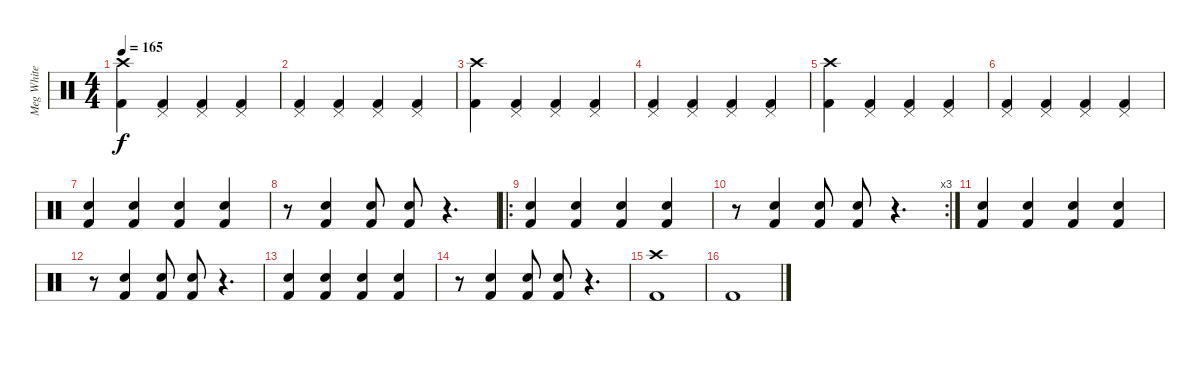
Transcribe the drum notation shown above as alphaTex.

\track ("Meg White" "Meg White") {instrument percussion}
\staff {score}
\articulation defaults
\ts (4 4)
\tempo 165
\clef neutral
\ks c
("Crash high (hit)" "Kick (hit) 2").4{dy f} ("Pedal Hi-Hat (hit)" "Kick (hit) 2").4 ("Pedal Hi-Hat (hit)" "Kick (hit) 2").4 ("Pedal Hi-Hat (hit)" "Kick (hit) 2").4 |
("Pedal Hi-Hat (hit)" "Kick (hit) 2").4 ("Pedal Hi-Hat (hit)" "Kick (hit) 2").4 ("Pedal Hi-Hat (hit)" "Kick (hit) 2").4 ("Pedal Hi-Hat (hit)" "Kick (hit) 2").4 |
("Crash high (hit)" "Kick (hit) 2").4 ("Pedal Hi-Hat (hit)" "Kick (hit) 2").4 ("Pedal Hi-Hat (hit)" "Kick (hit) 2").4 ("Pedal Hi-Hat (hit)" "Kick (hit) 2").4 |
("Pedal Hi-Hat (hit)" "Kick (hit) 2").4 ("Pedal Hi-Hat (hit)" "Kick (hit) 2").4 ("Pedal Hi-Hat (hit)" "Kick (hit) 2").4 ("Pedal Hi-Hat (hit)" "Kick (hit) 2").4 |
("Crash high (hit)" "Kick (hit) 2").4 ("Pedal Hi-Hat (hit)" "Kick (hit) 2").4 ("Pedal Hi-Hat (hit)" "Kick (hit) 2").4 ("Pedal Hi-Hat (hit)" "Kick (hit) 2").4 |
("Pedal Hi-Hat (hit)" "Kick (hit) 2").4 ("Pedal Hi-Hat (hit)" "Kick (hit) 2").4 ("Pedal Hi-Hat (hit)" "Kick (hit) 2").4 ("Pedal Hi-Hat (hit)" "Kick (hit) 2").4 |
("Electric Snare (hit)" "Kick (hit) 2").4 ("Electric Snare (hit)" "Kick (hit) 2").4 ("Electric Snare (hit)" "Kick (hit) 2").4 ("Electric Snare (hit)" "Kick (hit) 2").4 |
r.8 ("Electric Snare (hit)" "Kick (hit) 2").4 ("Electric Snare (hit)" "Kick (hit) 2").8 ("Electric Snare (hit)" "Kick (hit) 2").8 r.4{d} |
\ro
("Electric Snare (hit)" "Kick (hit) 2").4 ("Electric Snare (hit)" "Kick (hit) 2").4 ("Electric Snare (hit)" "Kick (hit) 2").4 ("Electric Snare (hit)" "Kick (hit) 2").4 |
\rc 3
r.8 ("Electric Snare (hit)" "Kick (hit) 2").4 ("Electric Snare (hit)" "Kick (hit) 2").8 ("Electric Snare (hit)" "Kick (hit) 2").8 r.4{d} |
("Electric Snare (hit)" "Kick (hit) 2").4 ("Electric Snare (hit)" "Kick (hit) 2").4 ("Electric Snare (hit)" "Kick (hit) 2").4 ("Electric Snare (hit)" "Kick (hit) 2").4 |
r.8 ("Electric Snare (hit)" "Kick (hit) 2").4 ("Electric Snare (hit)" "Kick (hit) 2").8 ("Electric Snare (hit)" "Kick (hit) 2").8 r.4{d} |
("Electric Snare (hit)" "Kick (hit) 2").4 ("Electric Snare (hit)" "Kick (hit) 2").4 ("Electric Snare (hit)" "Kick (hit) 2").4 ("Electric Snare (hit)" "Kick (hit) 2").4 |
r.8 ("Electric Snare (hit)" "Kick (hit) 2").4 ("Electric Snare (hit)" "Kick (hit) 2").8 ("Electric Snare (hit)" "Kick (hit) 2").8 r.4{d} |
("Crash high (hit)" "Kick (hit) 2").1 |
"Kick (hit) 2".1
